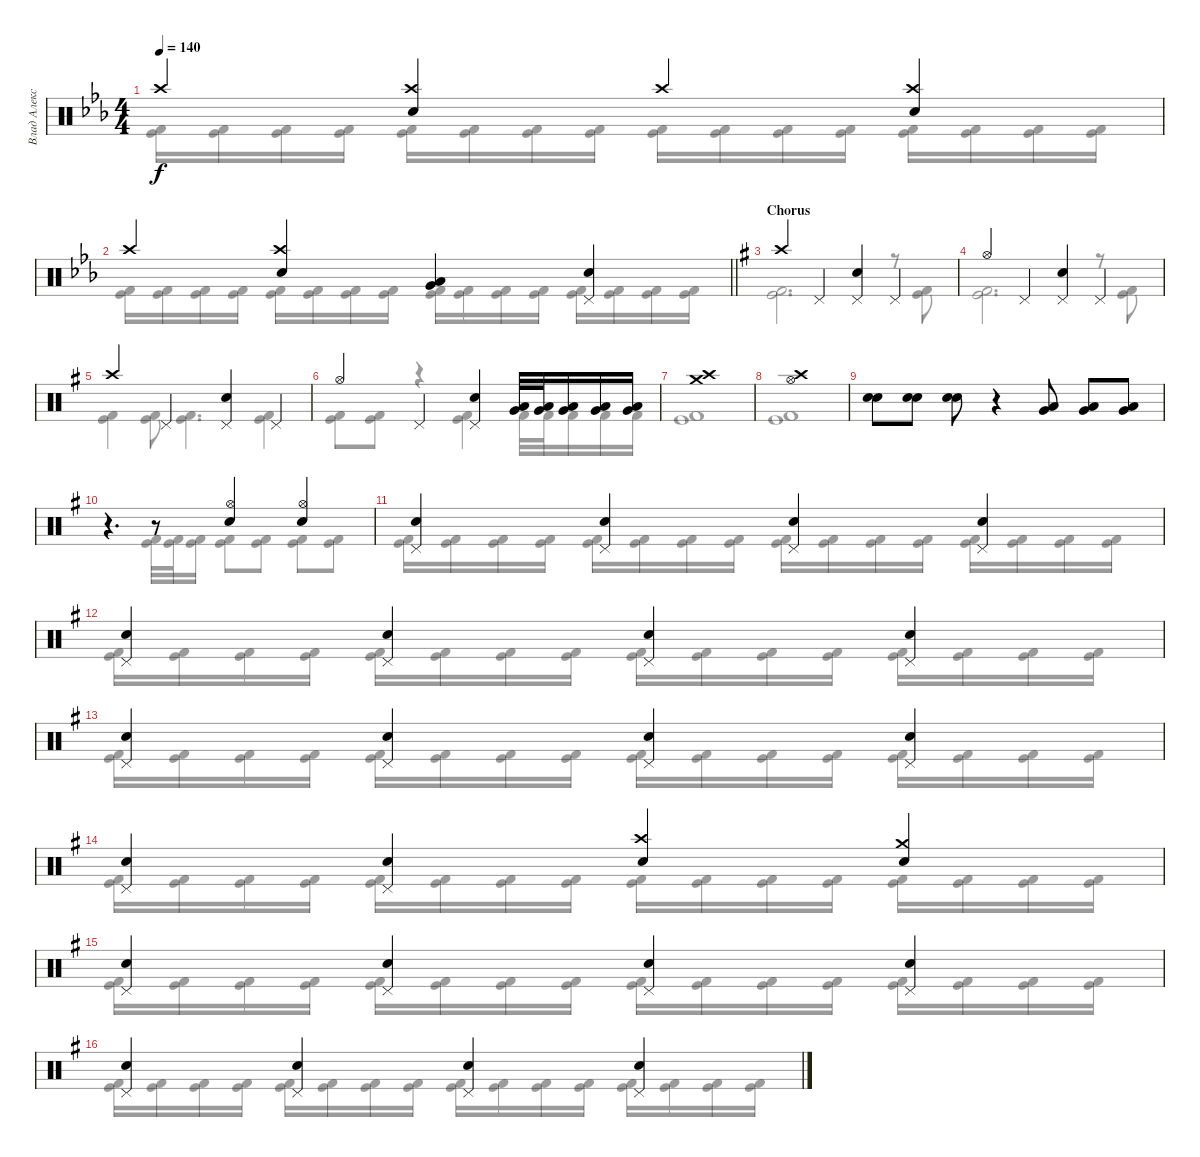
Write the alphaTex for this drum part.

\track ("Влад Алексеенко" "Влад Алекс") {instrument percussion}
\staff {score}
\articulation defaults
\voice
\ts (4 4)
\tempo 140
\clef neutral
\ks eb "Crash high (hit)".4{dy f}
("Electric Snare (hit)" "Crash high (hit)").4 "Crash high (hit)".4 ("Electric Snare (hit)" "Crash high (hit)").4 |
\barLineRight lightlight "Crash high (hit)".4
("Electric Snare (hit)" "Crash high (hit)").4 ("Very Low Tom (hit)" "Low Tom (hit)").4 ("Electric Snare (hit)" "Pedal Hi-Hat (hit)").4 |
\section ("" "Chorus")
\ks g "Crash high (hit)".4 "Pedal Hi-Hat (hit)".4
("Electric Snare (hit)" "Pedal Hi-Hat (hit)").4 "Pedal Hi-Hat (hit)".4 |
"Hi-Hat (open)".4 "Pedal Hi-Hat (hit)".4 ("Electric Snare (hit)" "Pedal Hi-Hat (hit)").4 "Pedal Hi-Hat (hit)".4 |
"Crash high (hit)".4 "Pedal Hi-Hat (hit)".4 ("Electric Snare (hit)" "Pedal Hi-Hat (hit)").4 "Pedal Hi-Hat (hit)".4 |
"Hi-Hat (open)".4 "Pedal Hi-Hat (hit)".4 ("Electric Snare (hit)" "Pedal Hi-Hat (hit)").4 ("Low Tom (hit)" "Very Low Tom (hit)").32 ("Very Low Tom (hit)" "Low Tom (hit)").32 ("Low Tom (hit)" "Very Low Tom (hit)").16 ("Low Tom (hit)" "Very Low Tom (hit)").16 ("Very Low Tom (hit)" "Low Tom (hit)").16 |
("Crash high (hit)" "Crash medium (hit)").1 |
("Crash high (hit)" "Hi-Hat (open)").1 |
("Electric Snare (hit)" "Electric Snare (hit)").8 ("Electric Snare (hit)" "Electric Snare (hit)").8 ("Electric Snare (hit)" "Electric Snare (hit)").8 r.4 ("Very Low Tom (hit)" "Low Tom (hit)").8 ("Very Low Tom (hit)" "Low Tom (hit)").8 ("Very Low Tom (hit)" "Low Tom (hit)").8 |
r.4{d} r.8 ("Electric Snare (hit)" "Hi-Hat (open)").4 ("Electric Snare (hit)" "Hi-Hat (open)").4 |
("Electric Snare (hit)" "Pedal Hi-Hat (hit)").4 ("Electric Snare (hit)" "Pedal Hi-Hat (hit)").4 ("Electric Snare (hit)" "Pedal Hi-Hat (hit)").4 ("Electric Snare (hit)" "Pedal Hi-Hat (hit)").4 |
("Electric Snare (hit)" "Pedal Hi-Hat (hit)").4 ("Electric Snare (hit)" "Pedal Hi-Hat (hit)").4 ("Electric Snare (hit)" "Pedal Hi-Hat (hit)").4 ("Electric Snare (hit)" "Pedal Hi-Hat (hit)").4 |
("Electric Snare (hit)" "Pedal Hi-Hat (hit)").4 ("Electric Snare (hit)" "Pedal Hi-Hat (hit)").4 ("Electric Snare (hit)" "Pedal Hi-Hat (hit)").4 ("Electric Snare (hit)" "Pedal Hi-Hat (hit)").4 |
("Electric Snare (hit)" "Pedal Hi-Hat (hit)").4 ("Electric Snare (hit)" "Pedal Hi-Hat (hit)").4 ("Electric Snare (hit)" "Crash high (hit)").4 ("Electric Snare (hit)" "Crash medium (hit)").4 |
("Electric Snare (hit)" "Pedal Hi-Hat (hit)").4 ("Electric Snare (hit)" "Pedal Hi-Hat (hit)").4 ("Electric Snare (hit)" "Pedal Hi-Hat (hit)").4 ("Electric Snare (hit)" "Pedal Hi-Hat (hit)").4 |
("Electric Snare (hit)" "Pedal Hi-Hat (hit)").4 ("Electric Snare (hit)" "Pedal Hi-Hat (hit)").4 ("Electric Snare (hit)" "Pedal Hi-Hat (hit)").4 ("Electric Snare (hit)" "Pedal Hi-Hat (hit)").4
\voice
\clef neutral
\ottava regular
\simile none
\ks eb
("Kick (hit) 2" "Kick (hit)").16{dy f} ("Kick (hit) 2" "Kick (hit)").16 ("Kick (hit) 2" "Kick (hit)").16 ("Kick (hit) 2" "Kick (hit)").16 ("Kick (hit) 2" "Kick (hit)").16 ("Kick (hit) 2" "Kick (hit)").16 ("Kick (hit) 2" "Kick (hit)").16 ("Kick (hit) 2" "Kick (hit)").16 ("Kick (hit) 2" "Kick (hit)").16 ("Kick (hit) 2" "Kick (hit)").16 ("Kick (hit) 2" "Kick (hit)").16 ("Kick (hit) 2" "Kick (hit)").16 ("Kick (hit) 2" "Kick (hit)").16 ("Kick (hit) 2" "Kick (hit)").16 ("Kick (hit) 2" "Kick (hit)").16 ("Kick (hit) 2" "Kick (hit)").16 |
\barLineRight lightlight
("Kick (hit) 2" "Kick (hit)").16 ("Kick (hit) 2" "Kick (hit)").16 ("Kick (hit) 2" "Kick (hit)").16 ("Kick (hit) 2" "Kick (hit)").16 ("Kick (hit) 2" "Kick (hit)").16 ("Kick (hit) 2" "Kick (hit)").16 ("Kick (hit) 2" "Kick (hit)").16 ("Kick (hit) 2" "Kick (hit)").16 ("Kick (hit) 2" "Kick (hit)").16 ("Kick (hit) 2" "Kick (hit)").16 ("Kick (hit) 2" "Kick (hit)").16 ("Kick (hit) 2" "Kick (hit)").16 ("Kick (hit) 2" "Kick (hit)").16 ("Kick (hit) 2" "Kick (hit)").16 ("Kick (hit) 2" "Kick (hit)").16 ("Kick (hit) 2" "Kick (hit)").16 |
\ks g
("Kick (hit) 2" "Kick (hit)").2{d} r.8 ("Kick (hit) 2" "Kick (hit)").8 |
("Kick (hit) 2" "Kick (hit)").2{d} r.8 ("Kick (hit) 2" "Kick (hit)").8 |
("Kick (hit) 2" "Kick (hit)").4 ("Kick (hit) 2" "Kick (hit)").8 ("Kick (hit) 2" "Kick (hit)").4{d} ("Kick (hit) 2" "Kick (hit)").4 |
("Kick (hit) 2" "Kick (hit)").8 ("Kick (hit) 2" "Kick (hit)").8 r.4 ("Kick (hit) 2" "Kick (hit)").4 "Kick (hit) 2".32 "Kick (hit) 2".32 "Kick (hit) 2".16 "Kick (hit) 2".16 "Kick (hit) 2".16 |
("Kick (hit) 2" "Kick (hit)").1 |
("Kick (hit) 2" "Kick (hit)").1 |
|
r.4{d} ("Kick (hit) 2" "Kick (hit)").32 ("Kick (hit) 2" "Kick (hit)").32 ("Kick (hit) 2" "Kick (hit)").16 ("Kick (hit) 2" "Kick (hit)").8 ("Kick (hit) 2" "Kick (hit)").8 ("Kick (hit) 2" "Kick (hit)").8 ("Kick (hit) 2" "Kick (hit)").8 |
("Kick (hit) 2" "Kick (hit)").16 ("Kick (hit) 2" "Kick (hit)").16 ("Kick (hit) 2" "Kick (hit)").16 ("Kick (hit) 2" "Kick (hit)").16 ("Kick (hit) 2" "Kick (hit)").16 ("Kick (hit) 2" "Kick (hit)").16 ("Kick (hit) 2" "Kick (hit)").16 ("Kick (hit) 2" "Kick (hit)").16 ("Kick (hit) 2" "Kick (hit)").16 ("Kick (hit) 2" "Kick (hit)").16 ("Kick (hit) 2" "Kick (hit)").16 ("Kick (hit) 2" "Kick (hit)").16 ("Kick (hit) 2" "Kick (hit)").16 ("Kick (hit) 2" "Kick (hit)").16 ("Kick (hit) 2" "Kick (hit)").16 ("Kick (hit) 2" "Kick (hit)").16 |
("Kick (hit) 2" "Kick (hit)").16 ("Kick (hit) 2" "Kick (hit)").16 ("Kick (hit) 2" "Kick (hit)").16 ("Kick (hit) 2" "Kick (hit)").16 ("Kick (hit) 2" "Kick (hit)").16 ("Kick (hit) 2" "Kick (hit)").16 ("Kick (hit) 2" "Kick (hit)").16 ("Kick (hit) 2" "Kick (hit)").16 ("Kick (hit) 2" "Kick (hit)").16 ("Kick (hit) 2" "Kick (hit)").16 ("Kick (hit) 2" "Kick (hit)").16 ("Kick (hit) 2" "Kick (hit)").16 ("Kick (hit) 2" "Kick (hit)").16 ("Kick (hit) 2" "Kick (hit)").16 ("Kick (hit) 2" "Kick (hit)").16 ("Kick (hit) 2" "Kick (hit)").16 |
("Kick (hit) 2" "Kick (hit)").16 ("Kick (hit) 2" "Kick (hit)").16 ("Kick (hit) 2" "Kick (hit)").16 ("Kick (hit) 2" "Kick (hit)").16 ("Kick (hit) 2" "Kick (hit)").16 ("Kick (hit) 2" "Kick (hit)").16 ("Kick (hit) 2" "Kick (hit)").16 ("Kick (hit) 2" "Kick (hit)").16 ("Kick (hit) 2" "Kick (hit)").16 ("Kick (hit) 2" "Kick (hit)").16 ("Kick (hit) 2" "Kick (hit)").16 ("Kick (hit) 2" "Kick (hit)").16 ("Kick (hit) 2" "Kick (hit)").16 ("Kick (hit) 2" "Kick (hit)").16 ("Kick (hit) 2" "Kick (hit)").16 ("Kick (hit) 2" "Kick (hit)").16 |
("Kick (hit) 2" "Kick (hit)").16 ("Kick (hit) 2" "Kick (hit)").16 ("Kick (hit) 2" "Kick (hit)").16 ("Kick (hit) 2" "Kick (hit)").16 ("Kick (hit) 2" "Kick (hit)").16 ("Kick (hit) 2" "Kick (hit)").16 ("Kick (hit) 2" "Kick (hit)").16 ("Kick (hit) 2" "Kick (hit)").16 ("Kick (hit) 2" "Kick (hit)").16 ("Kick (hit) 2" "Kick (hit)").16 ("Kick (hit) 2" "Kick (hit)").16 ("Kick (hit) 2" "Kick (hit)").16 ("Kick (hit) 2" "Kick (hit)").16 ("Kick (hit) 2" "Kick (hit)").16 ("Kick (hit) 2" "Kick (hit)").16 ("Kick (hit) 2" "Kick (hit)").16 |
("Kick (hit) 2" "Kick (hit)").16 ("Kick (hit) 2" "Kick (hit)").16 ("Kick (hit) 2" "Kick (hit)").16 ("Kick (hit) 2" "Kick (hit)").16 ("Kick (hit) 2" "Kick (hit)").16 ("Kick (hit) 2" "Kick (hit)").16 ("Kick (hit) 2" "Kick (hit)").16 ("Kick (hit) 2" "Kick (hit)").16 ("Kick (hit) 2" "Kick (hit)").16 ("Kick (hit) 2" "Kick (hit)").16 ("Kick (hit) 2" "Kick (hit)").16 ("Kick (hit) 2" "Kick (hit)").16 ("Kick (hit) 2" "Kick (hit)").16 ("Kick (hit) 2" "Kick (hit)").16 ("Kick (hit) 2" "Kick (hit)").16 ("Kick (hit) 2" "Kick (hit)").16 |
("Kick (hit) 2" "Kick (hit)").16 ("Kick (hit) 2" "Kick (hit)").16 ("Kick (hit) 2" "Kick (hit)").16 ("Kick (hit) 2" "Kick (hit)").16 ("Kick (hit) 2" "Kick (hit)").16 ("Kick (hit) 2" "Kick (hit)").16 ("Kick (hit) 2" "Kick (hit)").16 ("Kick (hit) 2" "Kick (hit)").16 ("Kick (hit) 2" "Kick (hit)").16 ("Kick (hit) 2" "Kick (hit)").16 ("Kick (hit) 2" "Kick (hit)").16 ("Kick (hit) 2" "Kick (hit)").16 ("Kick (hit) 2" "Kick (hit)").16 ("Kick (hit) 2" "Kick (hit)").16 ("Kick (hit) 2" "Kick (hit)").16 ("Kick (hit) 2" "Kick (hit)").16
